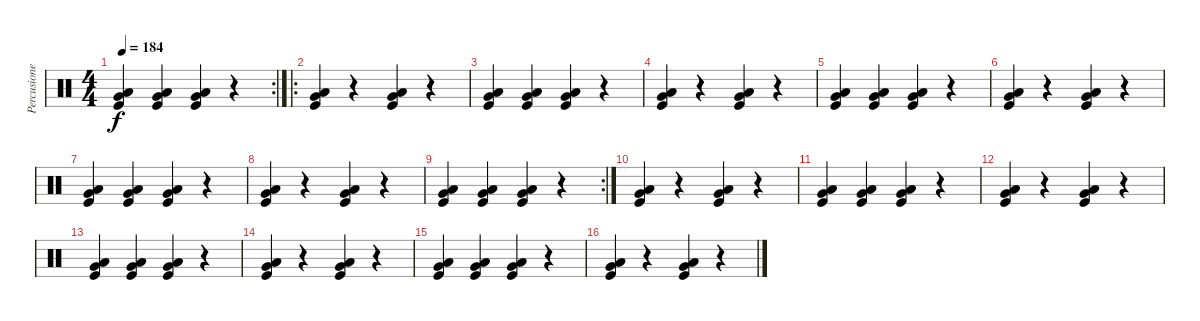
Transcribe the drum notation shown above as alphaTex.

\track ("Percusiones" "Percusione") {instrument percussion}
\staff {score}
\articulation defaults
\rc 2
\ts (4 4)
\tempo 184
\clef neutral
\ks c
("Low Floor Tom (hit)" "Very Low Tom (hit)" "Kick (hit)").4{dy f} ("Low Floor Tom (hit)" "Very Low Tom (hit)" "Kick (hit)").4 ("Low Floor Tom (hit)" "Very Low Tom (hit)" "Kick (hit)").4 r.4 |
\ro
("Low Floor Tom (hit)" "Very Low Tom (hit)" "Kick (hit)").4 r.4 ("Low Floor Tom (hit)" "Very Low Tom (hit)" "Kick (hit)").4 r.4 |
("Low Floor Tom (hit)" "Very Low Tom (hit)" "Kick (hit)").4 ("Low Floor Tom (hit)" "Very Low Tom (hit)" "Kick (hit)").4 ("Low Floor Tom (hit)" "Very Low Tom (hit)" "Kick (hit)").4 r.4 |
("Low Floor Tom (hit)" "Very Low Tom (hit)" "Kick (hit)").4 r.4 ("Low Floor Tom (hit)" "Very Low Tom (hit)" "Kick (hit)").4 r.4 |
("Low Floor Tom (hit)" "Very Low Tom (hit)" "Kick (hit)").4 ("Low Floor Tom (hit)" "Very Low Tom (hit)" "Kick (hit)").4 ("Low Floor Tom (hit)" "Very Low Tom (hit)" "Kick (hit)").4 r.4 |
("Low Floor Tom (hit)" "Very Low Tom (hit)" "Kick (hit)").4 r.4 ("Low Floor Tom (hit)" "Very Low Tom (hit)" "Kick (hit)").4 r.4 |
("Low Floor Tom (hit)" "Very Low Tom (hit)" "Kick (hit)").4 ("Low Floor Tom (hit)" "Very Low Tom (hit)" "Kick (hit)").4 ("Low Floor Tom (hit)" "Very Low Tom (hit)" "Kick (hit)").4 r.4 |
("Low Floor Tom (hit)" "Very Low Tom (hit)" "Kick (hit)").4 r.4 ("Low Floor Tom (hit)" "Very Low Tom (hit)" "Kick (hit)").4 r.4 |
\rc 2
("Low Floor Tom (hit)" "Very Low Tom (hit)" "Kick (hit)").4 ("Low Floor Tom (hit)" "Very Low Tom (hit)" "Kick (hit)").4 ("Low Floor Tom (hit)" "Very Low Tom (hit)" "Kick (hit)").4 r.4 |
("Low Floor Tom (hit)" "Very Low Tom (hit)" "Kick (hit)").4 r.4 ("Low Floor Tom (hit)" "Very Low Tom (hit)" "Kick (hit)").4 r.4 |
("Low Floor Tom (hit)" "Very Low Tom (hit)" "Kick (hit)").4 ("Low Floor Tom (hit)" "Very Low Tom (hit)" "Kick (hit)").4 ("Low Floor Tom (hit)" "Very Low Tom (hit)" "Kick (hit)").4 r.4 |
("Low Floor Tom (hit)" "Very Low Tom (hit)" "Kick (hit)").4 r.4 ("Low Floor Tom (hit)" "Very Low Tom (hit)" "Kick (hit)").4 r.4 |
("Low Floor Tom (hit)" "Very Low Tom (hit)" "Kick (hit)").4 ("Low Floor Tom (hit)" "Very Low Tom (hit)" "Kick (hit)").4 ("Low Floor Tom (hit)" "Very Low Tom (hit)" "Kick (hit)").4 r.4 |
("Low Floor Tom (hit)" "Very Low Tom (hit)" "Kick (hit)").4 r.4 ("Low Floor Tom (hit)" "Very Low Tom (hit)" "Kick (hit)").4 r.4 |
("Low Floor Tom (hit)" "Very Low Tom (hit)" "Kick (hit)").4 ("Low Floor Tom (hit)" "Very Low Tom (hit)" "Kick (hit)").4 ("Low Floor Tom (hit)" "Very Low Tom (hit)" "Kick (hit)").4 r.4 |
("Low Floor Tom (hit)" "Very Low Tom (hit)" "Kick (hit)").4 r.4 ("Low Floor Tom (hit)" "Very Low Tom (hit)" "Kick (hit)").4 r.4
